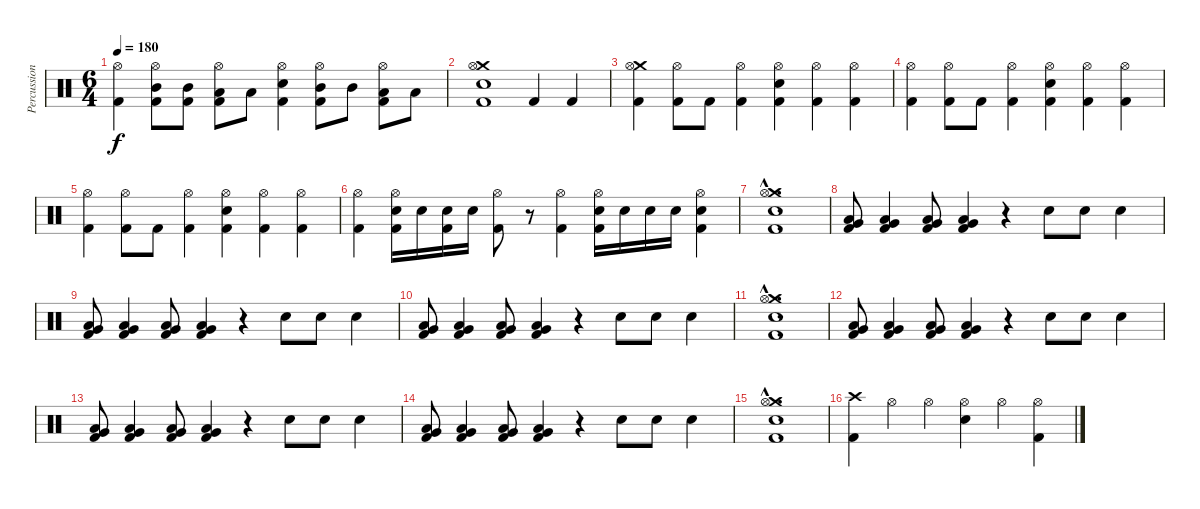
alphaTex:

\track ("Percussion" "Percussion") {instrument percussion}
\staff {score}
\articulation defaults
\ts (6 4)
\tempo 180
\clef neutral
\ks c
("Hi-Hat (open)" "Kick (hit) 2").4{dy f} ("Hi-Hat (open)" "Mid Tom (hit)" "Kick (hit) 2").8 ("Mid Tom (hit)" "Kick (hit) 2").8 ("Hi-Hat (open)" "Low Tom (hit)" "Kick (hit) 2").8 "Low Tom (hit)".8 ("Hi-Hat (open)" "Electric Snare (hit)" "Kick (hit) 2").4 ("Hi-Hat (open)" "Mid Tom (hit)" "Kick (hit) 2").8 "Mid Tom (hit)".8 ("Hi-Hat (open)" "Low Tom (hit)" "Kick (hit) 2").8 "Low Tom (hit)".8 |
("Crash medium (hit)" "Hi-Hat (open)" "Electric Snare (hit)" "Kick (hit) 2").1 "Kick (hit) 2".4 "Kick (hit) 2".4 |
("Crash medium (hit)" "Hi-Hat (open)" "Kick (hit) 2").4 ("Hi-Hat (open)" "Kick (hit) 2").8 "Kick (hit) 2".8 ("Hi-Hat (open)" "Kick (hit) 2").4 ("Hi-Hat (open)" "Electric Snare (hit)" "Kick (hit) 2").4 ("Hi-Hat (open)" "Kick (hit) 2").4 ("Hi-Hat (open)" "Kick (hit) 2").4 |
("Hi-Hat (open)" "Kick (hit) 2").4 ("Hi-Hat (open)" "Kick (hit) 2").8 "Kick (hit) 2".8 ("Hi-Hat (open)" "Kick (hit) 2").4 ("Hi-Hat (open)" "Electric Snare (hit)" "Kick (hit) 2").4 ("Hi-Hat (open)" "Kick (hit) 2").4 ("Hi-Hat (open)" "Kick (hit) 2").4 |
("Hi-Hat (open)" "Kick (hit) 2").4 ("Hi-Hat (open)" "Kick (hit) 2").8 "Kick (hit) 2".8 ("Hi-Hat (open)" "Kick (hit) 2").4 ("Hi-Hat (open)" "Electric Snare (hit)" "Kick (hit) 2").4 ("Hi-Hat (open)" "Kick (hit) 2").4 ("Hi-Hat (open)" "Kick (hit) 2").4 |
("Hi-Hat (open)" "Kick (hit) 2").4 ("Hi-Hat (open)" "Electric Snare (hit)" "Kick (hit) 2").16 "Electric Snare (hit)".16 ("Electric Snare (hit)" "Kick (hit) 2").16 "Electric Snare (hit)".16 ("Hi-Hat (open)" "Kick (hit) 2").8 r.8 ("Hi-Hat (open)" "Kick (hit) 2").4 ("Hi-Hat (open)" "Electric Snare (hit)" "Kick (hit) 2").16 "Electric Snare (hit)".16 "Electric Snare (hit)".16 "Electric Snare (hit)".16 ("Hi-Hat (open)" "Electric Snare (hit)" "Kick (hit) 2").4 |
("Crash medium (hit)"{hac} "Hi-Hat (open)"{hac} "Electric Snare (hit)"{hac} "Kick (hit) 2"{hac}).1{d} |
("Low Floor Tom (hit)" "Very Low Tom (hit)" "Kick (hit) 2").8 ("Low Floor Tom (hit)" "Very Low Tom (hit)" "Kick (hit) 2").4 ("Low Floor Tom (hit)" "Very Low Tom (hit)" "Kick (hit) 2").8 ("Low Floor Tom (hit)" "Very Low Tom (hit)" "Kick (hit) 2").4 r.4 "Electric Snare (hit)".8 "Electric Snare (hit)".8 "Electric Snare (hit)".4 |
("Low Floor Tom (hit)" "Very Low Tom (hit)" "Kick (hit) 2").8 ("Low Floor Tom (hit)" "Very Low Tom (hit)" "Kick (hit) 2").4 ("Low Floor Tom (hit)" "Very Low Tom (hit)" "Kick (hit) 2").8 ("Low Floor Tom (hit)" "Very Low Tom (hit)" "Kick (hit) 2").4 r.4 "Electric Snare (hit)".8 "Electric Snare (hit)".8 "Electric Snare (hit)".4 |
("Low Floor Tom (hit)" "Very Low Tom (hit)" "Kick (hit) 2").8 ("Low Floor Tom (hit)" "Very Low Tom (hit)" "Kick (hit) 2").4 ("Low Floor Tom (hit)" "Very Low Tom (hit)" "Kick (hit) 2").8 ("Low Floor Tom (hit)" "Very Low Tom (hit)" "Kick (hit) 2").4 r.4 "Electric Snare (hit)".8 "Electric Snare (hit)".8 "Electric Snare (hit)".4 |
("Crash medium (hit)"{hac} "Hi-Hat (open)"{hac} "Electric Snare (hit)"{hac} "Kick (hit) 2"{hac}).1{d} |
("Low Floor Tom (hit)" "Very Low Tom (hit)" "Kick (hit) 2").8 ("Low Floor Tom (hit)" "Very Low Tom (hit)" "Kick (hit) 2").4 ("Low Floor Tom (hit)" "Very Low Tom (hit)" "Kick (hit) 2").8 ("Low Floor Tom (hit)" "Very Low Tom (hit)" "Kick (hit) 2").4 r.4 "Electric Snare (hit)".8 "Electric Snare (hit)".8 "Electric Snare (hit)".4 |
("Low Floor Tom (hit)" "Very Low Tom (hit)" "Kick (hit) 2").8 ("Low Floor Tom (hit)" "Very Low Tom (hit)" "Kick (hit) 2").4 ("Low Floor Tom (hit)" "Very Low Tom (hit)" "Kick (hit) 2").8 ("Low Floor Tom (hit)" "Very Low Tom (hit)" "Kick (hit) 2").4 r.4 "Electric Snare (hit)".8 "Electric Snare (hit)".8 "Electric Snare (hit)".4 |
("Low Floor Tom (hit)" "Very Low Tom (hit)" "Kick (hit) 2").8 ("Low Floor Tom (hit)" "Very Low Tom (hit)" "Kick (hit) 2").4 ("Low Floor Tom (hit)" "Very Low Tom (hit)" "Kick (hit) 2").8 ("Low Floor Tom (hit)" "Very Low Tom (hit)" "Kick (hit) 2").4 r.4 "Electric Snare (hit)".8 "Electric Snare (hit)".8 "Electric Snare (hit)".4 |
("Crash medium (hit)"{hac} "Hi-Hat (open)"{hac} "Electric Snare (hit)"{hac} "Kick (hit) 2"{hac}).1{d} |
("Crash high (hit)" "Kick (hit) 2").4 "Hi-Hat (open)".4 "Hi-Hat (open)".4 ("Hi-Hat (open)" "Electric Snare (hit)").4 "Hi-Hat (open)".4 ("Hi-Hat (open)" "Kick (hit) 2").4
